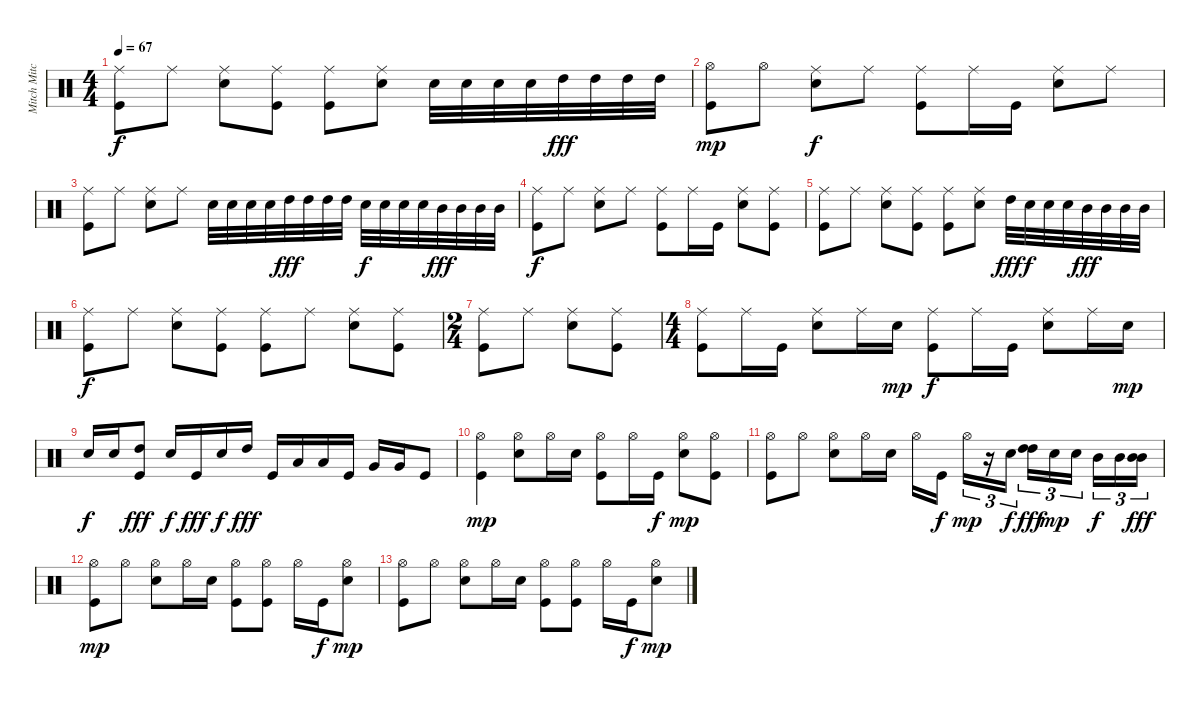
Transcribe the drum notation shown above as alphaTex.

\track ("Mitch Mitchell" "Mitch Mitc") {instrument percussion}
\staff {score}
\articulation defaults
\ts (4 4)
\tempo 67
\clef neutral
\ks c
("Ride (middle)" "Kick (hit)").8{dy f} "Ride (middle)".8 ("Ride (middle)" "Electric Snare (hit)").8 ("Ride (middle)" "Kick (hit)").8 ("Ride (middle)" "Kick (hit)").8 ("Ride (middle)" "Electric Snare (hit)").8 "Electric Snare (hit)".32 "Electric Snare (hit)".32 "Electric Snare (hit)".32 "Electric Snare (hit)".32 "High Tom (hit)".32{dy fff} "High Tom (hit)".32 "High Tom (hit)".32 "High Tom (hit)".32 |
("Hi-Hat (open)" "Kick (hit)").8{dy mp} "Hi-Hat (open)".8 ("Ride (middle)" "Electric Snare (hit)").8{dy f} "Ride (middle)".8 ("Ride (middle)" "Kick (hit)").8 "Ride (middle)".16 "Kick (hit)".16 ("Ride (middle)" "Electric Snare (hit)").8 "Ride (middle)".8 |
("Ride (middle)" "Kick (hit)").8 "Ride (middle)".8 ("Ride (middle)" "Electric Snare (hit)").8 "Ride (middle)".8 "Electric Snare (hit)".32 "Electric Snare (hit)".32 "Electric Snare (hit)".32 "Electric Snare (hit)".32 "High Tom (hit)".32{dy fff} "High Tom (hit)".32 "High Tom (hit)".32 "High Tom (hit)".32 "Electric Snare (hit)".32{dy f} "Electric Snare (hit)".32 "Electric Snare (hit)".32 "Electric Snare (hit)".32 "Mid Tom (hit)".32{dy fff} "Mid Tom (hit)".32 "Mid Tom (hit)".32 "Mid Tom (hit)".32 |
("Ride (middle)" "Kick (hit)").8{dy f} "Ride (middle)".8 ("Ride (middle)" "Electric Snare (hit)").8 "Ride (middle)".8 ("Ride (middle)" "Kick (hit)").8 "Ride (middle)".16 "Kick (hit)".16 ("Ride (middle)" "Electric Snare (hit)").8 ("Ride (middle)" "Kick (hit)").8 |
("Ride (middle)" "Kick (hit)").8 "Ride (middle)".8 ("Ride (middle)" "Electric Snare (hit)").8 ("Ride (middle)" "Kick (hit)").8 ("Ride (middle)" "Kick (hit)").8 ("Ride (middle)" "Electric Snare (hit)").8 "High Tom (hit)".32{dy fff} "Electric Snare (hit)".32{dy f} "Electric Snare (hit)".32 "Electric Snare (hit)".32 "Mid Tom (hit)".32{dy fff} "Mid Tom (hit)".32 "Mid Tom (hit)".32 "Mid Tom (hit)".32 |
("Ride (middle)" "Kick (hit)").8{dy f} "Ride (middle)".8 ("Ride (middle)" "Electric Snare (hit)").8 ("Ride (middle)" "Kick (hit)").8 ("Ride (middle)" "Kick (hit)").8 "Ride (middle)".8 ("Ride (middle)" "Electric Snare (hit)").8 ("Ride (middle)" "Kick (hit)").8 |
\ts (2 4)
("Ride (middle)" "Kick (hit)").8 "Ride (middle)".8 ("Ride (middle)" "Electric Snare (hit)").8 ("Ride (middle)" "Kick (hit)").8 |
\ts (4 4)
("Ride (middle)" "Kick (hit)").8 "Ride (middle)".16 "Kick (hit)".16 ("Ride (middle)" "Electric Snare (hit)").8 "Ride (middle)".16 "Electric Snare (hit)".16{dy mp} ("Ride (middle)" "Kick (hit)").8{dy f} "Ride (middle)".16 "Kick (hit)".16 ("Ride (middle)" "Electric Snare (hit)").8 "Ride (middle)".16 "Electric Snare (hit)".16{dy mp} |
"Electric Snare (hit)".16{dy f} "Electric Snare (hit)".16 ("High Tom (hit)" "Kick (hit)").8{dy fff} "Electric Snare (hit)".16{dy f} "Kick (hit)".16{dy fff} "Electric Snare (hit)".16{dy f} "High Tom (hit)".16{dy fff} "Kick (hit)".16 "Low Tom (hit)".16 "Low Tom (hit)".16 "Kick (hit)".16 "Very Low Tom (hit)".16 "Very Low Tom (hit)".16 "Kick (hit)".8 |
("Hi-Hat (open)" "Kick (hit)").4{dy mp} ("Hi-Hat (open)" "Electric Snare (hit)").8 "Hi-Hat (open)".16 "Electric Snare (hit)".16 ("Hi-Hat (open)" "Kick (hit)").8 "Hi-Hat (open)".16 "Kick (hit)".16{dy f} ("Hi-Hat (open)" "Electric Snare (hit)").8{dy mp} ("Hi-Hat (open)" "Kick (hit)").8 |
("Hi-Hat (open)" "Kick (hit)").8 "Hi-Hat (open)".8 ("Hi-Hat (open)" "Electric Snare (hit)").8 "Hi-Hat (open)".16 "Electric Snare (hit)".16 "Hi-Hat (open)".16 "Kick (hit)".16{dy f beam splitsecondary} "Hi-Hat (open)".16{tu (3 2) dy mp} r.16{tu (3 2)} "Electric Snare (hit)".16{tu (3 2) dy f} ("High Tom (hit)" "High Tom (hit)").16{tu (3 2) dy fff} "Electric Snare (hit)".16{tu (3 2) dy mp} "Electric Snare (hit)".16{tu (3 2) beam splitsecondary} "Mid Tom (hit)".16{tu (3 2) dy f} "Mid Tom (hit)".16{tu (3 2)} ("Mid Tom (hit)" "Mid Tom (hit)").16{tu (3 2) dy fff} |
("Hi-Hat (open)" "Kick (hit)").8{dy mp volume 0} "Hi-Hat (open)".8 ("Hi-Hat (open)" "Electric Snare (hit)").8 "Hi-Hat (open)".16 "Electric Snare (hit)".16 ("Hi-Hat (open)" "Kick (hit)").8 ("Hi-Hat (open)" "Kick (hit)").8 "Hi-Hat (open)".16 "Kick (hit)".16{dy f} ("Hi-Hat (open)" "Electric Snare (hit)").8{dy mp} |
("Hi-Hat (open)" "Kick (hit)").8 "Hi-Hat (open)".8 ("Hi-Hat (open)" "Electric Snare (hit)").8 "Hi-Hat (open)".16 "Electric Snare (hit)".16 ("Hi-Hat (open)" "Kick (hit)").8 ("Hi-Hat (open)" "Kick (hit)").8 "Hi-Hat (open)".16 "Kick (hit)".16{dy f} ("Hi-Hat (open)" "Electric Snare (hit)").8{dy mp}
